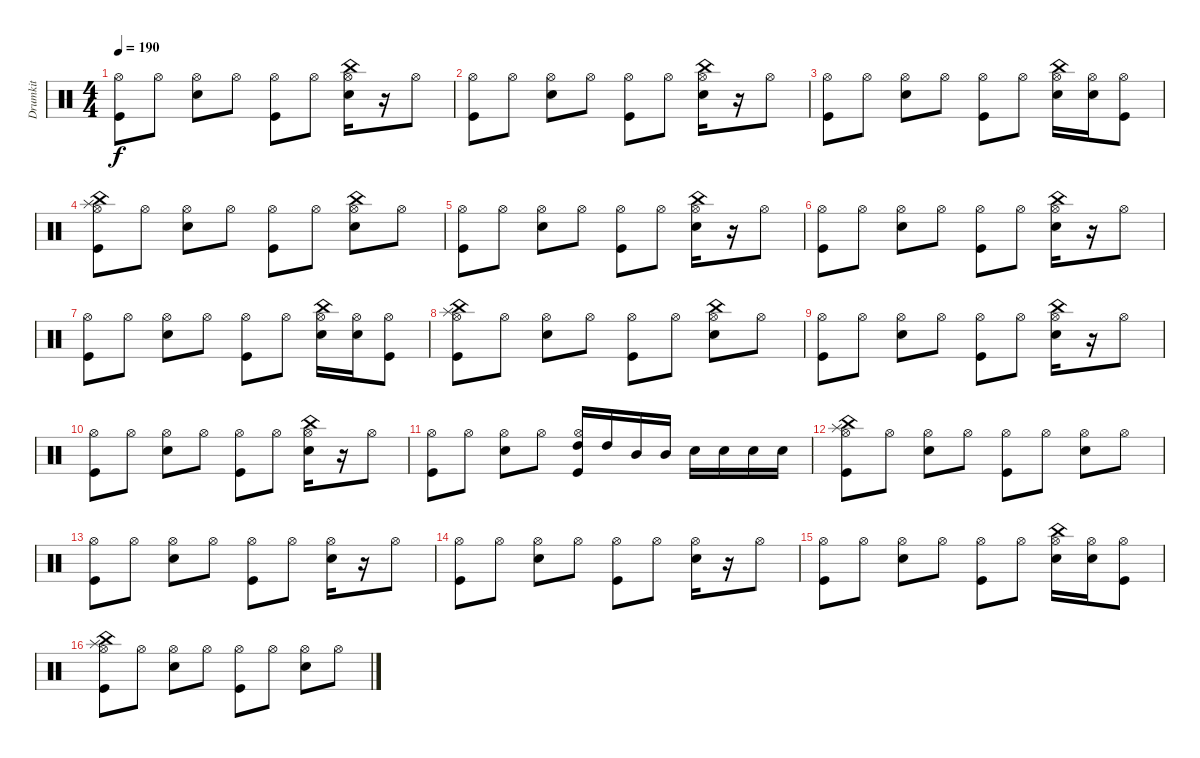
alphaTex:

\track ("Drumkit" "Drumkit") {instrument percussion}
\staff {score}
\articulation defaults
\ts (4 4)
\tempo 190
\clef neutral
\ks c
("Kick (hit)" "Hi-Hat (open)").8{dy f} "Hi-Hat (open)".8 ("Snare (hit) 2" "Hi-Hat (open)").8 "Hi-Hat (open)".8 ("Kick (hit)" "Hi-Hat (open)").8 "Hi-Hat (open)".8 ("Snare (hit) 2" "Hi-Hat (open)" "China (hit)").16 r.16 "Hi-Hat (open)".8 |
("Kick (hit)" "Hi-Hat (open)").8 "Hi-Hat (open)".8 ("Snare (hit) 2" "Hi-Hat (open)").8 "Hi-Hat (open)".8 ("Kick (hit)" "Hi-Hat (open)").8 "Hi-Hat (open)".8 ("Snare (hit) 2" "Hi-Hat (open)" "China (hit)").16 r.16 "Hi-Hat (open)".8 |
("Kick (hit)" "Hi-Hat (open)").8 "Hi-Hat (open)".8 ("Snare (hit) 2" "Hi-Hat (open)").8 "Hi-Hat (open)".8 ("Kick (hit)" "Hi-Hat (open)").8 "Hi-Hat (open)".8 ("Snare (hit) 2" "Hi-Hat (open)" "China (hit)").16 ("Snare (hit) 2" "Hi-Hat (open)").16 ("Kick (hit)" "Hi-Hat (open)").8 |
("Kick (hit)" "Hi-Hat (open)" "Splash (hit)" "China (hit)").8 "Hi-Hat (open)".8 ("Snare (hit) 2" "Hi-Hat (open)").8 "Hi-Hat (open)".8 ("Kick (hit)" "Hi-Hat (open)").8 "Hi-Hat (open)".8 ("Snare (hit) 2" "Hi-Hat (open)" "China (hit)").8 "Hi-Hat (open)".8 |
("Kick (hit)" "Hi-Hat (open)").8 "Hi-Hat (open)".8 ("Snare (hit) 2" "Hi-Hat (open)").8 "Hi-Hat (open)".8 ("Kick (hit)" "Hi-Hat (open)").8 "Hi-Hat (open)".8 ("Snare (hit) 2" "Hi-Hat (open)" "China (hit)").16 r.16 "Hi-Hat (open)".8 |
("Kick (hit)" "Hi-Hat (open)").8 "Hi-Hat (open)".8 ("Snare (hit) 2" "Hi-Hat (open)").8 "Hi-Hat (open)".8 ("Kick (hit)" "Hi-Hat (open)").8 "Hi-Hat (open)".8 ("Snare (hit) 2" "Hi-Hat (open)" "China (hit)").16 r.16 "Hi-Hat (open)".8 |
("Kick (hit)" "Hi-Hat (open)").8 "Hi-Hat (open)".8 ("Snare (hit) 2" "Hi-Hat (open)").8 "Hi-Hat (open)".8 ("Kick (hit)" "Hi-Hat (open)").8 "Hi-Hat (open)".8 ("Snare (hit) 2" "Hi-Hat (open)" "China (hit)").16 ("Snare (hit) 2" "Hi-Hat (open)").16 ("Kick (hit)" "Hi-Hat (open)").8 |
("Kick (hit)" "Hi-Hat (open)" "Splash (hit)" "China (hit)").8 "Hi-Hat (open)".8 ("Snare (hit) 2" "Hi-Hat (open)").8 "Hi-Hat (open)".8 ("Kick (hit)" "Hi-Hat (open)").8 "Hi-Hat (open)".8 ("Snare (hit) 2" "Hi-Hat (open)" "China (hit)").8 "Hi-Hat (open)".8 |
("Kick (hit)" "Hi-Hat (open)").8 "Hi-Hat (open)".8 ("Snare (hit) 2" "Hi-Hat (open)").8 "Hi-Hat (open)".8 ("Kick (hit)" "Hi-Hat (open)").8 "Hi-Hat (open)".8 ("Snare (hit) 2" "Hi-Hat (open)" "China (hit)").16 r.16 "Hi-Hat (open)".8 |
("Kick (hit)" "Hi-Hat (open)").8 "Hi-Hat (open)".8 ("Snare (hit) 2" "Hi-Hat (open)").8 "Hi-Hat (open)".8 ("Kick (hit)" "Hi-Hat (open)").8 "Hi-Hat (open)".8 ("Snare (hit) 2" "Hi-Hat (open)" "China (hit)").16 r.16 "Hi-Hat (open)".8 |
("Kick (hit)" "Hi-Hat (open)").8 "Hi-Hat (open)".8 ("Snare (hit) 2" "Hi-Hat (open)").8 "Hi-Hat (open)".8 ("Kick (hit)" "Hi-Hat (open)" "High Tom (hit)").16 "High Tom (hit)".16 "Mid Tom (hit)".16 "Mid Tom (hit)".16 "Snare (hit) 2".16 "Snare (hit) 2".16 "Snare (hit) 2".16 "Snare (hit) 2".16 |
("Kick (hit)" "Hi-Hat (open)" "Splash (hit)" "China (hit)").8 "Hi-Hat (open)".8 ("Snare (hit) 2" "Hi-Hat (open)").8 "Hi-Hat (open)".8 ("Kick (hit)" "Hi-Hat (open)").8 "Hi-Hat (open)".8 ("Snare (hit) 2" "Hi-Hat (open)").8 "Hi-Hat (open)".8 |
("Kick (hit)" "Hi-Hat (open)").8 "Hi-Hat (open)".8 ("Snare (hit) 2" "Hi-Hat (open)").8 "Hi-Hat (open)".8 ("Kick (hit)" "Hi-Hat (open)").8 "Hi-Hat (open)".8 ("Snare (hit) 2" "Hi-Hat (open)").16 r.16 "Hi-Hat (open)".8 |
("Kick (hit)" "Hi-Hat (open)").8 "Hi-Hat (open)".8 ("Snare (hit) 2" "Hi-Hat (open)").8 "Hi-Hat (open)".8 ("Kick (hit)" "Hi-Hat (open)").8 "Hi-Hat (open)".8 ("Snare (hit) 2" "Hi-Hat (open)").16 r.16 "Hi-Hat (open)".8 |
("Kick (hit)" "Hi-Hat (open)").8 "Hi-Hat (open)".8 ("Snare (hit) 2" "Hi-Hat (open)").8 "Hi-Hat (open)".8 ("Kick (hit)" "Hi-Hat (open)").8 "Hi-Hat (open)".8 ("Snare (hit) 2" "Hi-Hat (open)" "China (hit)").16 ("Snare (hit) 2" "Hi-Hat (open)").16 ("Kick (hit)" "Hi-Hat (open)").8 |
("Kick (hit)" "Hi-Hat (open)" "Splash (hit)" "China (hit)").8 "Hi-Hat (open)".8 ("Snare (hit) 2" "Hi-Hat (open)").8 "Hi-Hat (open)".8 ("Kick (hit)" "Hi-Hat (open)").8 "Hi-Hat (open)".8 ("Snare (hit) 2" "Hi-Hat (open)").8 "Hi-Hat (open)".8
